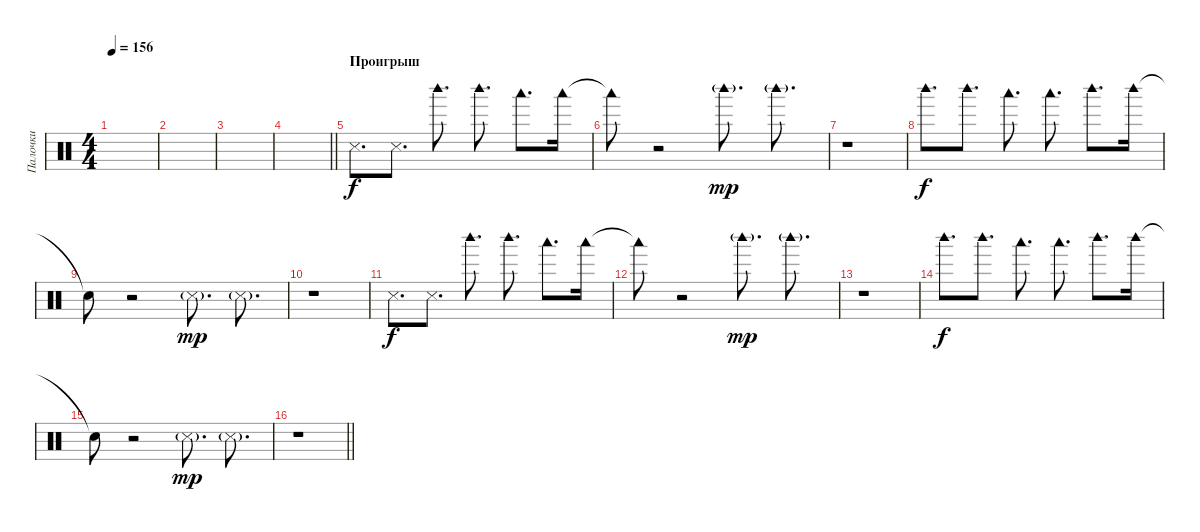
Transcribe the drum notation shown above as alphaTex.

\track ("Палочки" "Палочки") {instrument percussion}
\staff {score}
\articulation defaults
\ts (4 4)
\tempo 156
\clef neutral
\ks c
|
|
|
\barLineRight lightlight
|
\section ("" "Проигрыш")
"Metronome (hit)".8{d} "Metronome (hit)".8{d} "Woodblock high (hit)".8{d} "Woodblock high (hit)".8{d} "Woodblock low (hit)".8{d} "Woodblock low (hit)".16 |
"Woodblock low (hit)"{t}.8 r.2 "Woodblock high (hit)"{g}.8{d dy mp} "Woodblock high (hit)"{g}.8{d} |
r.1 |
"Woodblock high (hit)".8{d dy f} "Woodblock high (hit)".8{d} "Woodblock low (hit)".8{d} "Woodblock low (hit)".8{d} "Woodblock high (hit)".8{d} "Woodblock high (hit)".16 |
"Snare (hit)"{t}.8 r.2 "Metronome (hit)"{g}.8{d dy mp} "Metronome (hit)"{g}.8{d} |
r.1 |
"Metronome (hit)".8{d dy f} "Metronome (hit)".8{d} "Woodblock high (hit)".8{d} "Woodblock high (hit)".8{d} "Woodblock low (hit)".8{d} "Woodblock low (hit)".16 |
"Woodblock low (hit)"{t}.8 r.2 "Woodblock high (hit)"{g}.8{d dy mp} "Woodblock high (hit)"{g}.8{d} |
r.1 |
"Woodblock high (hit)".8{d dy f} "Woodblock high (hit)".8{d} "Woodblock low (hit)".8{d} "Woodblock low (hit)".8{d} "Woodblock high (hit)".8{d} "Woodblock high (hit)".16 |
"Snare (hit)"{t}.8 r.2 "Metronome (hit)"{g}.8{d dy mp} "Metronome (hit)"{g}.8{d} |
\barLineRight lightlight
r.1
